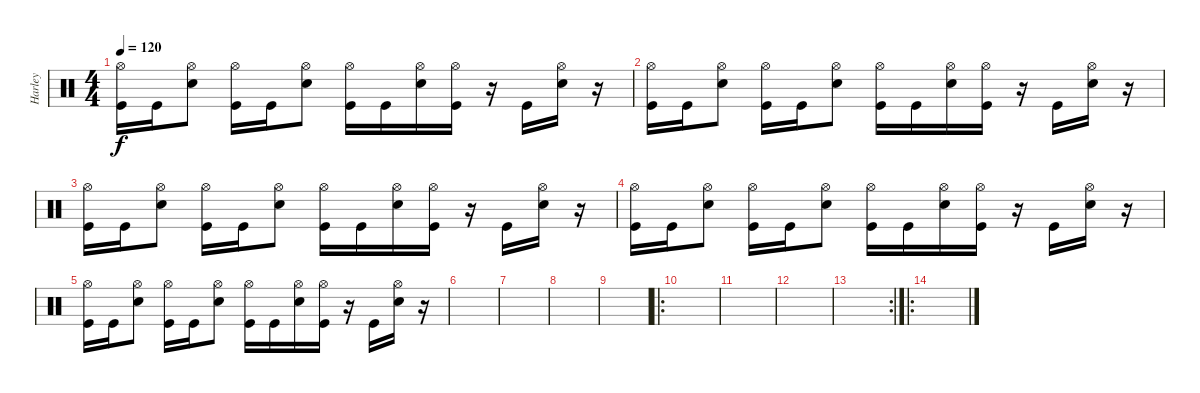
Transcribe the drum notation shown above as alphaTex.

\track ("Harley" "Harley") {instrument percussion}
\staff {score}
\articulation defaults
\ts (4 4)
\tempo 120
\clef neutral
\ks c
("Hi-Hat (open)" "Kick (hit)").16{dy f} "Kick (hit)".16 ("Hi-Hat (open)" "Snare (hit) 2").8 ("Hi-Hat (open)" "Kick (hit)").16 "Kick (hit)".16 ("Hi-Hat (open)" "Snare (hit) 2").8 ("Hi-Hat (open)" "Kick (hit)").16 "Kick (hit)".16 ("Hi-Hat (open)" "Snare (hit) 2").16 ("Hi-Hat (open)" "Kick (hit)").16 r.16 "Kick (hit)".16 ("Hi-Hat (open)" "Snare (hit) 2").16 r.16 |
("Hi-Hat (open)" "Kick (hit)").16 "Kick (hit)".16 ("Hi-Hat (open)" "Snare (hit) 2").8 ("Hi-Hat (open)" "Kick (hit)").16 "Kick (hit)".16 ("Hi-Hat (open)" "Snare (hit) 2").8 ("Hi-Hat (open)" "Kick (hit)").16 "Kick (hit)".16 ("Hi-Hat (open)" "Snare (hit) 2").16 ("Hi-Hat (open)" "Kick (hit)").16 r.16 "Kick (hit)".16 ("Hi-Hat (open)" "Snare (hit) 2").16 r.16 |
("Hi-Hat (open)" "Kick (hit)").16 "Kick (hit)".16 ("Hi-Hat (open)" "Snare (hit) 2").8 ("Hi-Hat (open)" "Kick (hit)").16 "Kick (hit)".16 ("Hi-Hat (open)" "Snare (hit) 2").8 ("Hi-Hat (open)" "Kick (hit)").16 "Kick (hit)".16 ("Hi-Hat (open)" "Snare (hit) 2").16 ("Hi-Hat (open)" "Kick (hit)").16 r.16 "Kick (hit)".16 ("Hi-Hat (open)" "Snare (hit) 2").16 r.16 |
("Hi-Hat (open)" "Kick (hit)").16 "Kick (hit)".16 ("Hi-Hat (open)" "Snare (hit) 2").8 ("Hi-Hat (open)" "Kick (hit)").16 "Kick (hit)".16 ("Hi-Hat (open)" "Snare (hit) 2").8 ("Hi-Hat (open)" "Kick (hit)").16 "Kick (hit)".16 ("Hi-Hat (open)" "Snare (hit) 2").16 ("Hi-Hat (open)" "Kick (hit)").16 r.16 "Kick (hit)".16 ("Hi-Hat (open)" "Snare (hit) 2").16 r.16 |
("Hi-Hat (open)" "Kick (hit)").16 "Kick (hit)".16 ("Hi-Hat (open)" "Snare (hit) 2").8 ("Hi-Hat (open)" "Kick (hit)").16 "Kick (hit)".16 ("Hi-Hat (open)" "Snare (hit) 2").8 ("Hi-Hat (open)" "Kick (hit)").16 "Kick (hit)".16 ("Hi-Hat (open)" "Snare (hit) 2").16 ("Hi-Hat (open)" "Kick (hit)").16 r.16 "Kick (hit)".16 ("Hi-Hat (open)" "Snare (hit) 2").16 r.16 |
|
|
|
|
\ro
|
|
|
\rc 2
|
\ro
